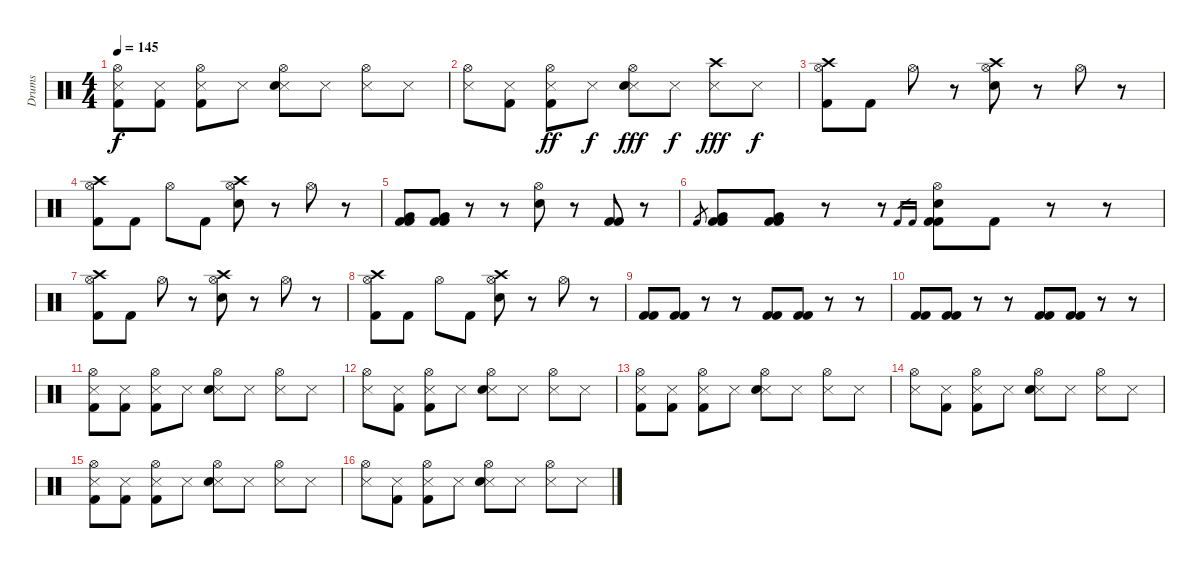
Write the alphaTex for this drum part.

\track ("Drums" "Drums") {instrument percussion}
\staff {score}
\articulation defaults
\ts (4 4)
\tempo 145
\clef neutral
\ks c
("Hi-Hat (open)" "Snare (side stick) 3" "Kick (hit) 2").8{dy f} ("Snare (side stick) 3" "Kick (hit) 2").8 ("Hi-Hat (open)" "Snare (side stick) 3" "Kick (hit) 2").8 "Snare (side stick) 3".8 ("Hi-Hat (open)" "Snare (side stick) 3" "Snare (hit) 2").8 "Snare (side stick) 3".8 ("Hi-Hat (open)" "Snare (side stick) 3").8 "Snare (side stick) 3".8 |
("Hi-Hat (open)" "Snare (side stick) 3").8 ("Snare (side stick) 3" "Kick (hit) 2").8 ("Hi-Hat (open)" "Snare (side stick) 3" "Kick (hit) 2").8{dy ff} "Snare (side stick) 3".8{dy f} ("Hi-Hat (open)" "Snare (side stick) 3" "Snare (hit) 2").8{dy fff} "Snare (side stick) 3".8{dy f} ("Crash high (hit)" "Snare (side stick) 3").8{dy fff} "Snare (side stick) 3".8{dy f} |
("Hi-Hat (open)" "Crash high (hit)" "Kick (hit) 2").8 "Kick (hit) 2".8 "Hi-Hat (open)".8 r.8 ("Hi-Hat (open)" "Crash high (hit)" "Electric Snare (hit)").8 r.8 "Hi-Hat (open)".8 r.8 |
("Hi-Hat (open)" "Crash high (hit)" "Kick (hit) 2").8 "Kick (hit) 2".8 "Hi-Hat (open)".8 "Kick (hit) 2".8 ("Hi-Hat (open)" "Crash high (hit)" "Electric Snare (hit)").8 r.8 "Hi-Hat (open)".8 r.8 |
("Very Low Tom (hit)" "Kick (hit) 2" "Kick (hit) 2").8 ("Very Low Tom (hit)" "Kick (hit) 2" "Kick (hit) 2").8 r.8 r.8 ("Hi-Hat (open)" "Electric Snare (hit)").8 r.8 ("Kick (hit) 2" "Kick (hit) 2").8 r.8 |
"Kick (hit) 2".8{gr} ("Very Low Tom (hit)" "Kick (hit) 2" "Kick (hit) 2").8 ("Very Low Tom (hit)" "Kick (hit) 2" "Kick (hit) 2").8 r.8 r.8 "Kick (hit) 2".16{gr} "Kick (hit) 2".16{gr} ("Hi-Hat (open)" "Electric Snare (hit)" "Kick (hit) 2" "Kick (hit) 2").8 "Kick (hit) 2".8 r.8 r.8 |
("Hi-Hat (open)" "Crash high (hit)" "Kick (hit) 2").8 "Kick (hit) 2".8 "Hi-Hat (open)".8 r.8 ("Hi-Hat (open)" "Crash high (hit)" "Electric Snare (hit)").8 r.8 "Hi-Hat (open)".8 r.8 |
("Hi-Hat (open)" "Crash high (hit)" "Kick (hit) 2").8 "Kick (hit) 2".8 "Hi-Hat (open)".8 "Kick (hit) 2".8 ("Hi-Hat (open)" "Crash high (hit)" "Electric Snare (hit)").8 r.8 "Hi-Hat (open)".8 r.8 |
("Kick (hit) 2" "Kick (hit) 2").8 ("Kick (hit) 2" "Kick (hit) 2").8 r.8 r.8 ("Kick (hit) 2" "Kick (hit) 2").8 ("Kick (hit) 2" "Kick (hit) 2").8 r.8 r.8 |
("Kick (hit) 2" "Kick (hit) 2").8 ("Kick (hit) 2" "Kick (hit) 2").8 r.8 r.8 ("Kick (hit) 2" "Kick (hit) 2").8 ("Kick (hit) 2" "Kick (hit) 2").8 r.8 r.8 |
("Hi-Hat (open)" "Snare (side stick) 3" "Kick (hit) 2").8 ("Snare (side stick) 3" "Kick (hit) 2").8 ("Hi-Hat (open)" "Snare (side stick) 3" "Kick (hit) 2").8 "Snare (side stick) 3".8 ("Hi-Hat (open)" "Snare (side stick) 3" "Snare (hit) 2").8 "Snare (side stick) 3".8 ("Hi-Hat (open)" "Snare (side stick) 3").8 "Snare (side stick) 3".8 |
("Hi-Hat (open)" "Snare (side stick) 3").8 ("Snare (side stick) 3" "Kick (hit) 2").8 ("Hi-Hat (open)" "Snare (side stick) 3" "Kick (hit) 2").8 "Snare (side stick) 3".8 ("Hi-Hat (open)" "Snare (side stick) 3" "Snare (hit) 2").8 "Snare (side stick) 3".8 ("Hi-Hat (open)" "Snare (side stick) 3").8 "Snare (side stick) 3".8 |
("Hi-Hat (open)" "Snare (side stick) 3" "Kick (hit) 2").8 ("Snare (side stick) 3" "Kick (hit) 2").8 ("Hi-Hat (open)" "Snare (side stick) 3" "Kick (hit) 2").8 "Snare (side stick) 3".8 ("Hi-Hat (open)" "Snare (side stick) 3" "Snare (hit) 2").8 "Snare (side stick) 3".8 ("Hi-Hat (open)" "Snare (side stick) 3").8 "Snare (side stick) 3".8 |
("Hi-Hat (open)" "Snare (side stick) 3").8 ("Snare (side stick) 3" "Kick (hit) 2").8 ("Hi-Hat (open)" "Snare (side stick) 3" "Kick (hit) 2").8 "Snare (side stick) 3".8 ("Hi-Hat (open)" "Snare (side stick) 3" "Snare (hit) 2").8 "Snare (side stick) 3".8 ("Hi-Hat (open)" "Snare (side stick) 3").8 "Snare (side stick) 3".8 |
("Hi-Hat (open)" "Snare (side stick) 3" "Kick (hit) 2").8 ("Snare (side stick) 3" "Kick (hit) 2").8 ("Hi-Hat (open)" "Snare (side stick) 3" "Kick (hit) 2").8 "Snare (side stick) 3".8 ("Hi-Hat (open)" "Snare (side stick) 3" "Snare (hit) 2").8 "Snare (side stick) 3".8 ("Hi-Hat (open)" "Snare (side stick) 3").8 "Snare (side stick) 3".8 |
("Hi-Hat (open)" "Snare (side stick) 3").8 ("Snare (side stick) 3" "Kick (hit) 2").8 ("Hi-Hat (open)" "Snare (side stick) 3" "Kick (hit) 2").8 "Snare (side stick) 3".8 ("Hi-Hat (open)" "Snare (side stick) 3" "Snare (hit) 2").8 "Snare (side stick) 3".8 ("Hi-Hat (open)" "Snare (side stick) 3").8 "Snare (side stick) 3".8
